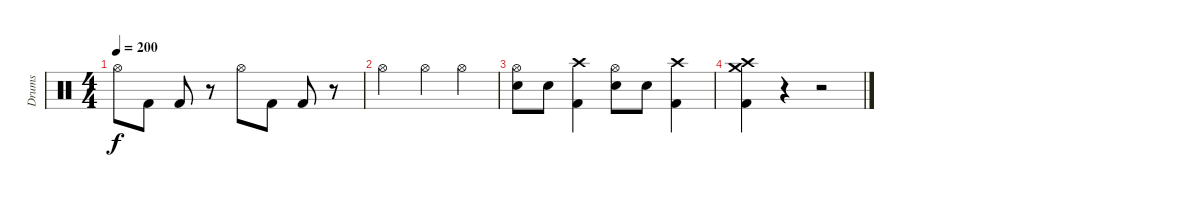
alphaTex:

\track ("Drums" "Drums") {instrument percussion}
\staff {score}
\articulation defaults
\ts (4 4)
\tempo 200
\clef neutral
\ks c "Hi-Hat (open)".8{dy f} "Kick (hit) 2".8 "Kick (hit) 2".8
r.8 "Hi-Hat (open)".8 "Kick (hit) 2".8 "Kick (hit) 2".8 r.8 |
"Hi-Hat (open)".2 "Hi-Hat (open)".4 "Hi-Hat (open)".4 |
("Hi-Hat (open)" "Snare (hit) 2").8 "Snare (hit) 2".8 ("Crash high (hit)" "Kick (hit) 2").4 ("Hi-Hat (open)" "Snare (hit) 2").8 "Snare (hit) 2".8 ("Crash high (hit)" "Kick (hit) 2").4 |
("Crash medium (hit)" "Crash high (hit)" "Kick (hit) 2").4 r.4 r.2
